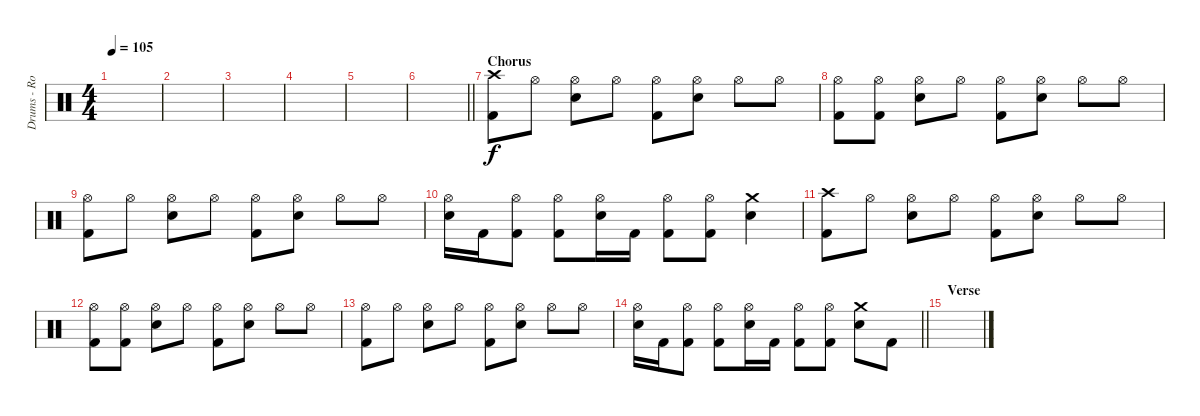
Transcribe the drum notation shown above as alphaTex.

\track ("Drums - Rob Bourdon" "Drums - Ro") {instrument percussion}
\staff {score}
\articulation defaults
\ts (4 4)
\tempo 105
\clef neutral
\ks c
|
|
|
|
|
\barLineRight lightlight
|
\section ("" "Chorus")
("Crash high (hit)" "Kick (hit) 2").8{volume 13} "Hi-Hat (open)".8 ("Hi-Hat (open)" "Snare (hit) 2").8 "Hi-Hat (open)".8 ("Hi-Hat (open)" "Kick (hit) 2").8 ("Hi-Hat (open)" "Snare (hit) 2").8 "Hi-Hat (open)".8 "Hi-Hat (open)".8 |
("Hi-Hat (open)" "Kick (hit) 2").8 ("Hi-Hat (open)" "Kick (hit) 2").8 ("Hi-Hat (open)" "Snare (hit) 2").8 "Hi-Hat (open)".8 ("Hi-Hat (open)" "Kick (hit) 2").8 ("Hi-Hat (open)" "Snare (hit) 2").8 "Hi-Hat (open)".8 "Hi-Hat (open)".8 |
("Hi-Hat (open)" "Kick (hit) 2").8 "Hi-Hat (open)".8 ("Hi-Hat (open)" "Snare (hit) 2").8 "Hi-Hat (open)".8 ("Hi-Hat (open)" "Kick (hit) 2").8 ("Hi-Hat (open)" "Snare (hit) 2").8 "Hi-Hat (open)".8 "Hi-Hat (open)".8 |
("Hi-Hat (open)" "Snare (hit) 2").16 "Kick (hit) 2".16 ("Hi-Hat (open)" "Kick (hit) 2").8 ("Hi-Hat (open)" "Kick (hit) 2").8 ("Hi-Hat (open)" "Snare (hit) 2").16 "Kick (hit) 2".16 ("Hi-Hat (open)" "Kick (hit) 2").8 ("Hi-Hat (open)" "Kick (hit) 2").8 ("Crash medium (hit)" "Snare (hit) 2").4 |
("Crash high (hit)" "Kick (hit) 2").8 "Hi-Hat (open)".8 ("Hi-Hat (open)" "Snare (hit) 2").8 "Hi-Hat (open)".8 ("Hi-Hat (open)" "Kick (hit) 2").8 ("Hi-Hat (open)" "Snare (hit) 2").8 "Hi-Hat (open)".8 "Hi-Hat (open)".8 |
("Hi-Hat (open)" "Kick (hit) 2").8 ("Hi-Hat (open)" "Kick (hit) 2").8 ("Hi-Hat (open)" "Snare (hit) 2").8 "Hi-Hat (open)".8 ("Hi-Hat (open)" "Kick (hit) 2").8 ("Hi-Hat (open)" "Snare (hit) 2").8 "Hi-Hat (open)".8 "Hi-Hat (open)".8 |
("Hi-Hat (open)" "Kick (hit) 2").8 "Hi-Hat (open)".8 ("Hi-Hat (open)" "Snare (hit) 2").8 "Hi-Hat (open)".8 ("Hi-Hat (open)" "Kick (hit) 2").8 ("Hi-Hat (open)" "Snare (hit) 2").8 "Hi-Hat (open)".8 "Hi-Hat (open)".8 |
\barLineRight lightlight
("Hi-Hat (open)" "Snare (hit) 2").16 "Kick (hit) 2".16 ("Hi-Hat (open)" "Kick (hit) 2").8 ("Hi-Hat (open)" "Kick (hit) 2").8 ("Hi-Hat (open)" "Snare (hit) 2").16 "Kick (hit) 2".16 ("Hi-Hat (open)" "Kick (hit) 2").8 ("Hi-Hat (open)" "Kick (hit) 2").8 ("Crash medium (hit)" "Snare (hit) 2").8 "Kick (hit) 2".8 |
\section ("" "Verse")
